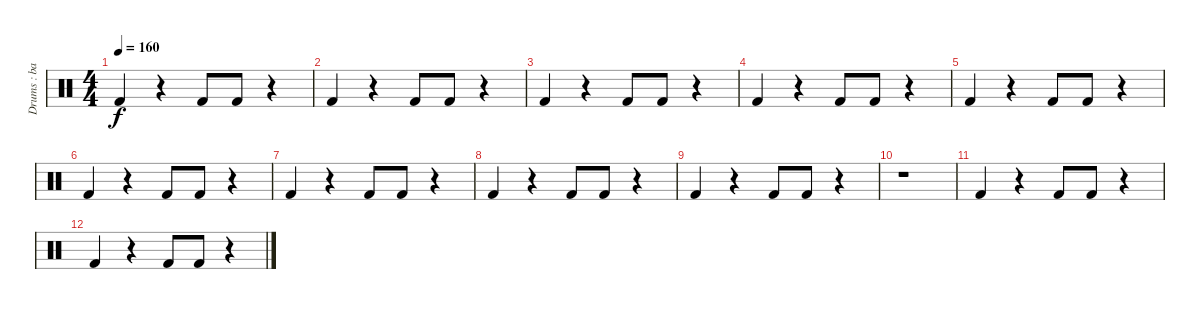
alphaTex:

\track ("Drums : bass drums" "Drums : ba") {instrument percussion}
\staff {score}
\articulation defaults
\ts (4 4)
\tempo 160
\clef neutral
\ks c "Kick (hit) 2".4{dy f}
r.4 "Kick (hit) 2".8 "Kick (hit) 2".8 r.4 |
"Kick (hit) 2".4 r.4 "Kick (hit) 2".8 "Kick (hit) 2".8 r.4 |
"Kick (hit) 2".4 r.4 "Kick (hit) 2".8 "Kick (hit) 2".8 r.4 |
"Kick (hit) 2".4 r.4 "Kick (hit) 2".8 "Kick (hit) 2".8 r.4 |
"Kick (hit) 2".4{volume 0} r.4 "Kick (hit) 2".8 "Kick (hit) 2".8 r.4 |
"Kick (hit) 2".4 r.4 "Kick (hit) 2".8 "Kick (hit) 2".8 r.4 |
"Kick (hit) 2".4 r.4 "Kick (hit) 2".8 "Kick (hit) 2".8 r.4 |
"Kick (hit) 2".4 r.4 "Kick (hit) 2".8 "Kick (hit) 2".8 r.4 |
"Kick (hit) 2".4 r.4 "Kick (hit) 2".8 "Kick (hit) 2".8 r.4 |
r.1 |
"Kick (hit) 2".4 r.4 "Kick (hit) 2".8 "Kick (hit) 2".8 r.4 |
"Kick (hit) 2".4 r.4 "Kick (hit) 2".8 "Kick (hit) 2".8 r.4
